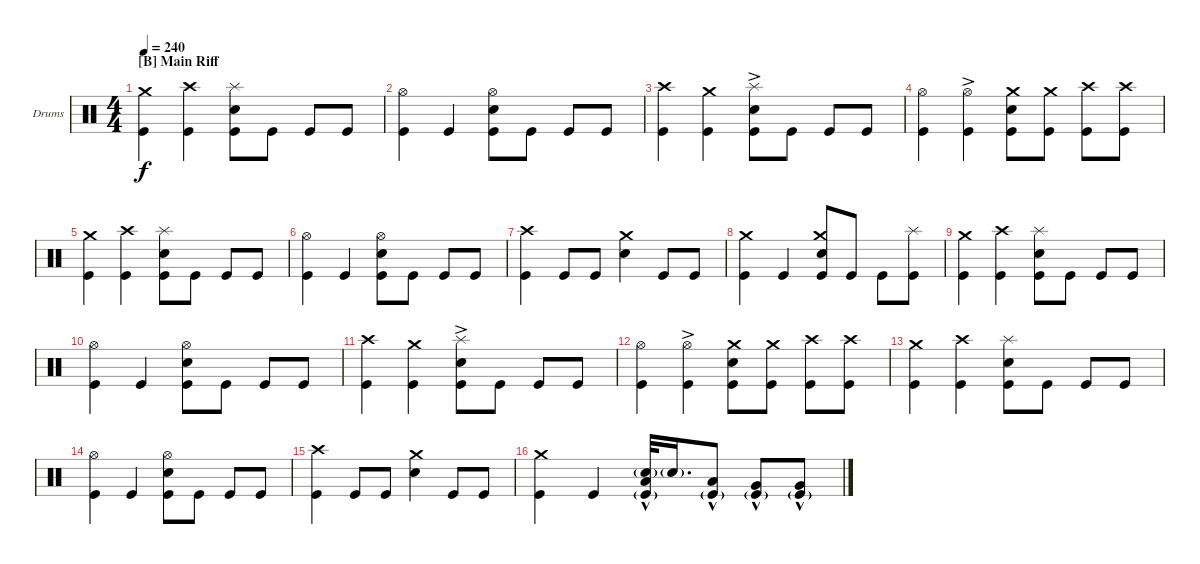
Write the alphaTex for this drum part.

\defaultSystemsLayout 4
\bracketExtendMode groupsimilarinstruments
\firstSystemTrackNameOrientation horizontal
\otherSystemsTrackNameOrientation horizontal
\track ("Drumkit" "Drums") {instrument percussion}
\staff {score}
\articulation defaults
\ts (4 4)
\section ("B" "Main Riff")
\tempo 240
\clef neutral
\ks c
("Kick (hit)" "Crash medium (hit)").4{dy f} ("Kick (hit)" "Crash high (hit)").4 ("Snare (hit) 2" "Kick (hit)" "Splash (hit)").8 "Kick (hit)".8 "Kick (hit)".8 "Kick (hit)".8 |
("Kick (hit)" "Hi-Hat (open)").4 "Kick (hit)".4 ("Kick (hit)" "Snare (hit) 2" "Hi-Hat (open)").8 "Kick (hit)".8 "Kick (hit)".8 "Kick (hit)".8 |
("Kick (hit)" "Crash high (hit)").4 ("Kick (hit)" "Crash medium (hit)").4 ("Snare (hit) 2" "Kick (hit)" "Splash (hit)"{ac}).8 "Kick (hit)".8 "Kick (hit)".8 "Kick (hit)".8 |
("Kick (hit)" "Hi-Hat (open)").4 ("Kick (hit)" "Hi-Hat (open)"{ac}).4 ("Kick (hit)" "Snare (hit) 2" "Crash medium (hit)").8 ("Kick (hit)" "Crash medium (hit)").8 ("Kick (hit)" "Crash high (hit)").8 ("Kick (hit)" "Crash high (hit)").8 |
("Kick (hit)" "Crash medium (hit)").4 ("Kick (hit)" "Crash high (hit)").4 ("Snare (hit) 2" "Kick (hit)" "Splash (hit)").8 "Kick (hit)".8 "Kick (hit)".8 "Kick (hit)".8 |
("Kick (hit)" "Hi-Hat (open)").4 "Kick (hit)".4 ("Kick (hit)" "Snare (hit) 2" "Hi-Hat (open)").8 "Kick (hit)".8 "Kick (hit)".8 "Kick (hit)".8 |
("Crash high (hit)" "Kick (hit)").4 "Kick (hit)".8 "Kick (hit)".8 ("Snare (hit) 2" "Crash medium (hit)").4 "Kick (hit)".8 "Kick (hit)".8 |
("Kick (hit)" "Crash medium (hit)").4 "Kick (hit)".4 ("Snare (hit) 2" "Kick (hit)" "Crash medium (hit)").8 "Kick (hit)".8 "Kick (hit)".8 ("Kick (hit)" "Splash (hit)").8 |
("Kick (hit)" "Crash medium (hit)").4 ("Kick (hit)" "Crash high (hit)").4 ("Snare (hit) 2" "Kick (hit)" "Splash (hit)").8 "Kick (hit)".8 "Kick (hit)".8 "Kick (hit)".8 |
("Kick (hit)" "Hi-Hat (open)").4 "Kick (hit)".4 ("Kick (hit)" "Snare (hit) 2" "Hi-Hat (open)").8 "Kick (hit)".8 "Kick (hit)".8 "Kick (hit)".8 |
("Kick (hit)" "Crash high (hit)").4 ("Kick (hit)" "Crash medium (hit)").4 ("Snare (hit) 2" "Kick (hit)" "Splash (hit)"{ac}).8 "Kick (hit)".8 "Kick (hit)".8 "Kick (hit)".8 |
("Kick (hit)" "Hi-Hat (open)").4 ("Kick (hit)" "Hi-Hat (open)"{ac}).4 ("Kick (hit)" "Snare (hit) 2" "Crash medium (hit)").8 ("Kick (hit)" "Crash medium (hit)").8 ("Kick (hit)" "Crash high (hit)").8 ("Kick (hit)" "Crash high (hit)").8 |
("Kick (hit)" "Crash medium (hit)").4 ("Kick (hit)" "Crash high (hit)").4 ("Snare (hit) 2" "Kick (hit)" "Splash (hit)").8 "Kick (hit)".8 "Kick (hit)".8 "Kick (hit)".8 |
("Kick (hit)" "Hi-Hat (open)").4 "Kick (hit)".4 ("Kick (hit)" "Snare (hit) 2" "Hi-Hat (open)").8 "Kick (hit)".8 "Kick (hit)".8 "Kick (hit)".8 |
("Crash high (hit)" "Kick (hit)").4 "Kick (hit)".8 "Kick (hit)".8 ("Snare (hit) 2" "Crash medium (hit)").4 "Kick (hit)".8 "Kick (hit)".8 |
("Kick (hit)" "Crash medium (hit)").4 "Kick (hit)".4 ("Snare (hit) 2"{g} "Kick (hit)"{g} "Low Tom (hit)"{hac}).32 "Snare (hit) 2"{g}.16{d} ("Kick (hit)"{g} "Low Tom (hit)"{hac}).8 ("Kick (hit)"{g} "Very Low Tom (hit)"{hac}).8 ("Kick (hit)"{g} "Very Low Tom (hit)"{hac}).8
